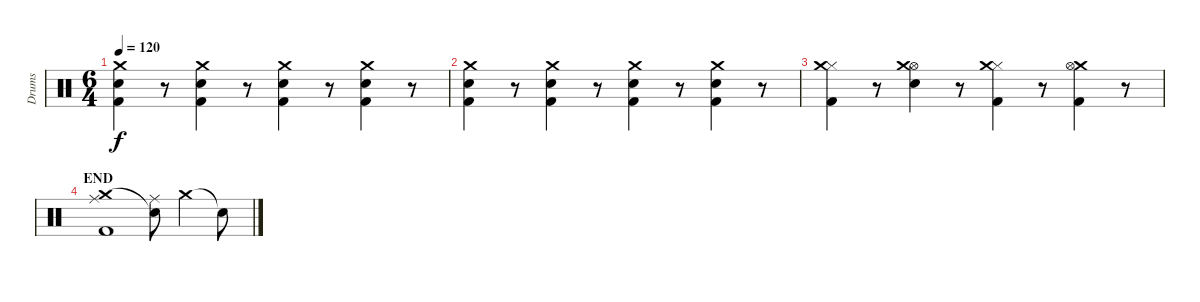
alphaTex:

\track ("Drums" "Drums") {instrument percussion}
\staff {score}
\articulation defaults
\ts (6 4)
\tempo 120
\clef neutral
\ks c
("Crash medium (hit)" "Snare (hit) 2" "Kick (hit) 2").4{dy f} r.8 ("Crash medium (hit)" "Snare (hit) 2" "Kick (hit) 2").4 r.8 ("Crash medium (hit)" "Snare (hit) 2" "Kick (hit) 2").4 r.8 ("Crash medium (hit)" "Snare (hit) 2" "Kick (hit) 2").4 r.8 |
("Crash medium (hit)" "Snare (hit) 2" "Kick (hit) 2").4 r.8 ("Crash medium (hit)" "Snare (hit) 2" "Kick (hit) 2").4 r.8 ("Crash medium (hit)" "Snare (hit) 2" "Kick (hit) 2").4 r.8 ("Crash medium (hit)" "Snare (hit) 2" "Kick (hit) 2").4 r.8 |
("Hi-Hat (closed)" "Crash medium (hit)" "Kick (hit) 2").4 r.8 ("Hi-Hat (open)" "Crash medium (hit)" "Snare (hit) 2").4 r.8 ("Hi-Hat (closed)" "Crash medium (hit)" "Kick (hit) 2").4 r.8 ("Crash medium (hit)" "Hi-Hat (open)" "Kick (hit) 2").4 r.8 |
\section ("" "END")
("Ride (middle)" "Crash medium (hit)" "Kick (hit) 2").1 ("Ride (middle)" "Snare (hit)"{t}).8 "Crash medium (hit)".4 "Snare (hit)"{t}.8
